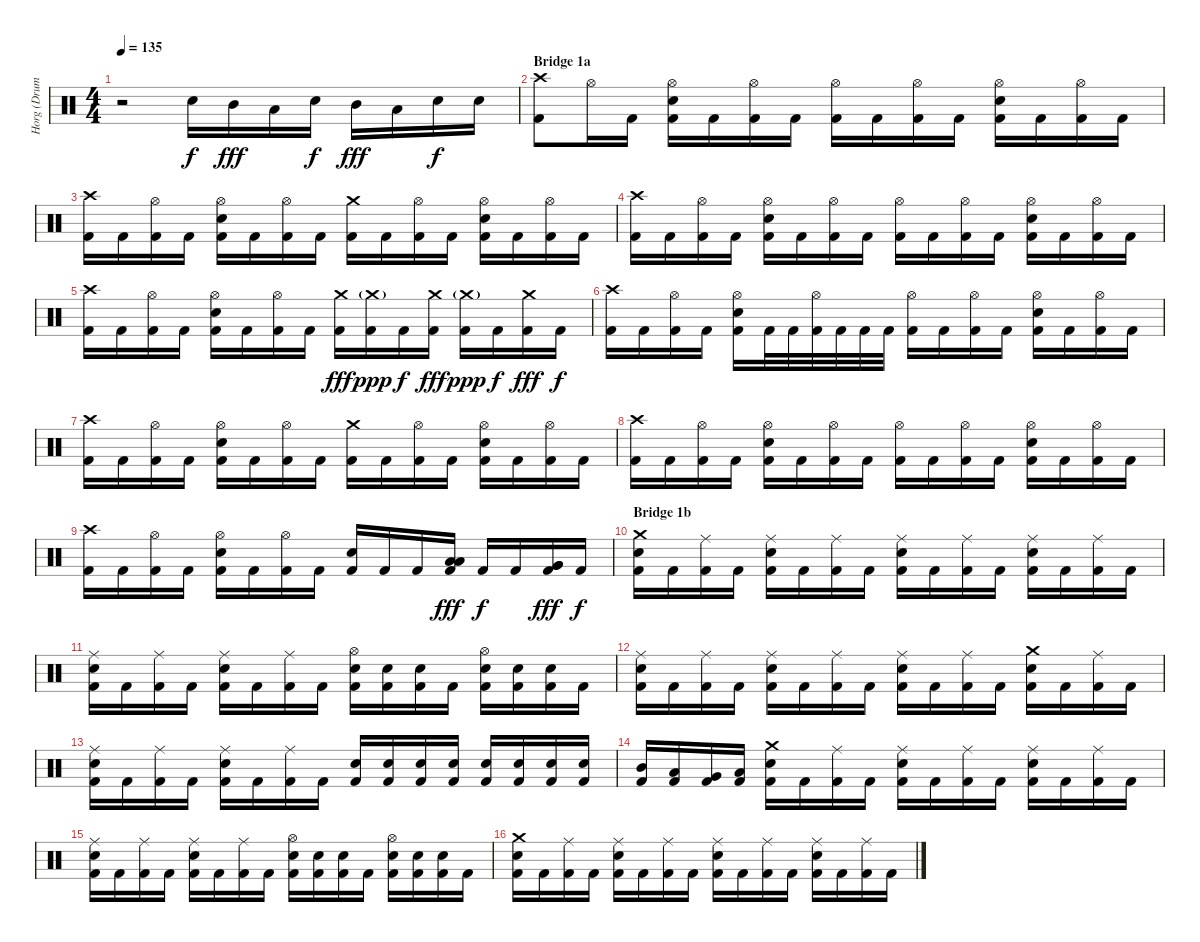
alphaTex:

\track ("Horg (Drums)" "Horg (Drum") {instrument percussion}
\staff {score}
\articulation defaults
\ts (4 4)
\tempo 135
\clef neutral
\ks c
r.2{dy f} "Electric Snare (hit)".16 "Mid Tom (hit)".16{dy fff} "Low Tom (hit)".16 "Electric Snare (hit)".16{dy f} "Mid Tom (hit)".16{dy fff} "Low Tom (hit)".16 "Electric Snare (hit)".16{dy f} "Electric Snare (hit)".16 |
\section ("" "Bridge 1a")
("Crash high (hit)" "Kick (hit) 2").8 "Hi-Hat (open)".16 "Kick (hit) 2".16 ("Hi-Hat (open)" "Electric Snare (hit)" "Kick (hit) 2").16 "Kick (hit) 2".16 ("Hi-Hat (open)" "Kick (hit) 2").16 "Kick (hit) 2".16 ("Hi-Hat (open)" "Kick (hit) 2").16 "Kick (hit) 2".16 ("Hi-Hat (open)" "Kick (hit) 2").16 "Kick (hit) 2".16 ("Hi-Hat (open)" "Electric Snare (hit)" "Kick (hit) 2").16 "Kick (hit) 2".16 ("Hi-Hat (open)" "Kick (hit) 2").16 "Kick (hit) 2".16 |
("Crash high (hit)" "Kick (hit) 2").16 "Kick (hit) 2".16 ("Hi-Hat (open)" "Kick (hit) 2").16 "Kick (hit) 2".16 ("Hi-Hat (open)" "Electric Snare (hit)" "Kick (hit) 2").16 "Kick (hit) 2".16 ("Hi-Hat (open)" "Kick (hit) 2").16 "Kick (hit) 2".16 ("Crash medium (hit)" "Kick (hit) 2").16 "Kick (hit) 2".16 ("Hi-Hat (open)" "Kick (hit) 2").16 "Kick (hit) 2".16 ("Hi-Hat (open)" "Electric Snare (hit)" "Kick (hit) 2").16 "Kick (hit) 2".16 ("Hi-Hat (open)" "Kick (hit) 2").16 "Kick (hit) 2".16 |
("Crash high (hit)" "Kick (hit) 2").16 "Kick (hit) 2".16 ("Hi-Hat (open)" "Kick (hit) 2").16 "Kick (hit) 2".16 ("Hi-Hat (open)" "Electric Snare (hit)" "Kick (hit) 2").16 "Kick (hit) 2".16 ("Hi-Hat (open)" "Kick (hit) 2").16 "Kick (hit) 2".16 ("Hi-Hat (open)" "Kick (hit) 2").16 "Kick (hit) 2".16 ("Hi-Hat (open)" "Kick (hit) 2").16 "Kick (hit) 2".16 ("Hi-Hat (open)" "Electric Snare (hit)" "Kick (hit) 2").16 "Kick (hit) 2".16 ("Hi-Hat (open)" "Kick (hit) 2").16 "Kick (hit) 2".16 |
("Crash high (hit)" "Kick (hit) 2").16 "Kick (hit) 2".16 ("Hi-Hat (open)" "Kick (hit) 2").16 "Kick (hit) 2".16 ("Hi-Hat (open)" "Electric Snare (hit)" "Kick (hit) 2").16 "Kick (hit) 2".16 ("Hi-Hat (open)" "Kick (hit) 2").16 "Kick (hit) 2".16 ("Crash medium (hit)" "Kick (hit) 2").16{dy fff} ("Crash medium (hit)"{g} "Kick (hit) 2").16{dy ppp} "Kick (hit) 2".16{dy f} ("Crash medium (hit)" "Kick (hit) 2").16{dy fff} ("Crash medium (hit)"{g} "Kick (hit) 2").16{dy ppp} "Kick (hit) 2".16{dy f} ("Crash medium (hit)" "Kick (hit) 2").16{dy fff} "Kick (hit) 2".16{dy f} |
("Crash high (hit)" "Kick (hit) 2").16 "Kick (hit) 2".16 ("Hi-Hat (open)" "Kick (hit) 2").16 "Kick (hit) 2".16 ("Hi-Hat (open)" "Electric Snare (hit)" "Kick (hit) 2").16 "Kick (hit) 2".32 "Kick (hit) 2".32 ("Hi-Hat (open)" "Kick (hit) 2").32 "Kick (hit) 2".32 "Kick (hit) 2".32 "Kick (hit) 2".32 ("Hi-Hat (open)" "Kick (hit) 2").16 "Kick (hit) 2".16 ("Hi-Hat (open)" "Kick (hit) 2").16 "Kick (hit) 2".16 ("Hi-Hat (open)" "Electric Snare (hit)" "Kick (hit) 2").16 "Kick (hit) 2".16 ("Hi-Hat (open)" "Kick (hit) 2").16 "Kick (hit) 2".16 |
("Crash high (hit)" "Kick (hit) 2").16 "Kick (hit) 2".16 ("Hi-Hat (open)" "Kick (hit) 2").16 "Kick (hit) 2".16 ("Hi-Hat (open)" "Electric Snare (hit)" "Kick (hit) 2").16 "Kick (hit) 2".16 ("Hi-Hat (open)" "Kick (hit) 2").16 "Kick (hit) 2".16 ("Crash medium (hit)" "Kick (hit) 2").16 "Kick (hit) 2".16 ("Hi-Hat (open)" "Kick (hit) 2").16 "Kick (hit) 2".16 ("Hi-Hat (open)" "Electric Snare (hit)" "Kick (hit) 2").16 "Kick (hit) 2".16 ("Hi-Hat (open)" "Kick (hit) 2").16 "Kick (hit) 2".16 |
("Crash high (hit)" "Kick (hit) 2").16 "Kick (hit) 2".16 ("Hi-Hat (open)" "Kick (hit) 2").16 "Kick (hit) 2".16 ("Hi-Hat (open)" "Electric Snare (hit)" "Kick (hit) 2").16 "Kick (hit) 2".16 ("Hi-Hat (open)" "Kick (hit) 2").16 "Kick (hit) 2".16 ("Hi-Hat (open)" "Kick (hit) 2").16 "Kick (hit) 2".16 ("Hi-Hat (open)" "Kick (hit) 2").16 "Kick (hit) 2".16 ("Hi-Hat (open)" "Electric Snare (hit)" "Kick (hit) 2").16 "Kick (hit) 2".16 ("Hi-Hat (open)" "Kick (hit) 2").16 "Kick (hit) 2".16 |
("Crash high (hit)" "Kick (hit) 2").16 "Kick (hit) 2".16 ("Hi-Hat (open)" "Kick (hit) 2").16 "Kick (hit) 2".16 ("Hi-Hat (open)" "Electric Snare (hit)" "Kick (hit) 2").16 "Kick (hit) 2".16 ("Hi-Hat (open)" "Kick (hit) 2").16 "Kick (hit) 2".16 ("Electric Snare (hit)" "Kick (hit) 2").16 "Kick (hit) 2".16 "Kick (hit) 2".16 ("Low Tom (hit)" "Low Tom (hit)" "Kick (hit) 2").16{dy fff} "Kick (hit) 2".16{dy f} "Kick (hit) 2".16 ("Very Low Tom (hit)" "Very Low Tom (hit)" "Kick (hit) 2").16{dy fff} "Kick (hit) 2".16{dy f} |
\section ("" "Bridge 1b")
("Crash medium (hit)" "Electric Snare (hit)" "Kick (hit) 2").16 "Kick (hit) 2".16 ("Ride (middle)" "Kick (hit) 2").16 "Kick (hit) 2".16 ("Ride (middle)" "Electric Snare (hit)" "Kick (hit) 2").16 "Kick (hit) 2".16 ("Ride (middle)" "Kick (hit) 2").16 "Kick (hit) 2".16 ("Ride (middle)" "Electric Snare (hit)" "Kick (hit) 2").16 "Kick (hit) 2".16 ("Ride (middle)" "Kick (hit) 2").16 "Kick (hit) 2".16 ("Ride (middle)" "Electric Snare (hit)" "Kick (hit) 2").16 "Kick (hit) 2".16 ("Ride (middle)" "Kick (hit) 2").16 "Kick (hit) 2".16 |
("Ride (middle)" "Electric Snare (hit)" "Kick (hit) 2").16 "Kick (hit) 2".16 ("Ride (middle)" "Kick (hit) 2").16 "Kick (hit) 2".16 ("Ride (middle)" "Electric Snare (hit)" "Kick (hit) 2").16 "Kick (hit) 2".16 ("Ride (middle)" "Kick (hit) 2").16 "Kick (hit) 2".16 ("Hi-Hat (open)" "Electric Snare (hit)" "Kick (hit) 2").16 ("Electric Snare (hit)" "Kick (hit) 2").16 ("Electric Snare (hit)" "Kick (hit) 2").16 "Kick (hit) 2".16 ("Hi-Hat (open)" "Electric Snare (hit)" "Kick (hit) 2").16 ("Electric Snare (hit)" "Kick (hit) 2").16 ("Electric Snare (hit)" "Kick (hit) 2").16 "Kick (hit) 2".16 |
("Ride (middle)" "Electric Snare (hit)" "Kick (hit) 2").16 "Kick (hit) 2".16 ("Ride (middle)" "Kick (hit) 2").16 "Kick (hit) 2".16 ("Ride (middle)" "Electric Snare (hit)" "Kick (hit) 2").16 "Kick (hit) 2".16 ("Ride (middle)" "Kick (hit) 2").16 "Kick (hit) 2".16 ("Ride (middle)" "Electric Snare (hit)" "Kick (hit) 2").16 "Kick (hit) 2".16 ("Ride (middle)" "Kick (hit) 2").16 "Kick (hit) 2".16 ("Crash medium (hit)" "Electric Snare (hit)" "Kick (hit) 2").16 "Kick (hit) 2".16 ("Ride (middle)" "Kick (hit) 2").16 "Kick (hit) 2".16 |
("Ride (middle)" "Electric Snare (hit)" "Kick (hit) 2").16 "Kick (hit) 2".16 ("Ride (middle)" "Kick (hit) 2").16 "Kick (hit) 2".16 ("Ride (middle)" "Electric Snare (hit)" "Kick (hit) 2").16 "Kick (hit) 2".16 ("Ride (middle)" "Kick (hit) 2").16 "Kick (hit) 2".16 ("Electric Snare (hit)" "Kick (hit) 2").16 ("Electric Snare (hit)" "Kick (hit) 2").16 ("Electric Snare (hit)" "Kick (hit) 2").16 ("Electric Snare (hit)" "Kick (hit) 2").16 ("Electric Snare (hit)" "Kick (hit) 2").16 ("Electric Snare (hit)" "Kick (hit) 2").16 ("Electric Snare (hit)" "Kick (hit) 2").16 ("Electric Snare (hit)" "Kick (hit) 2").16 |
("Mid Tom (hit)" "Kick (hit) 2").16 ("Low Tom (hit)" "Kick (hit) 2").16 ("Very Low Tom (hit)" "Kick (hit) 2").16 ("Low Floor Tom (hit)" "Kick (hit) 2").16 ("Crash medium (hit)" "Electric Snare (hit)" "Kick (hit) 2").16 "Kick (hit) 2".16 ("Ride (middle)" "Kick (hit) 2").16 "Kick (hit) 2".16 ("Ride (middle)" "Electric Snare (hit)" "Kick (hit) 2").16 "Kick (hit) 2".16 ("Ride (middle)" "Kick (hit) 2").16 "Kick (hit) 2".16 ("Ride (middle)" "Electric Snare (hit)" "Kick (hit) 2").16 "Kick (hit) 2".16 ("Ride (middle)" "Kick (hit) 2").16 "Kick (hit) 2".16 |
("Ride (middle)" "Electric Snare (hit)" "Kick (hit) 2").16 "Kick (hit) 2".16 ("Ride (middle)" "Kick (hit) 2").16 "Kick (hit) 2".16 ("Ride (middle)" "Electric Snare (hit)" "Kick (hit) 2").16 "Kick (hit) 2".16 ("Ride (middle)" "Kick (hit) 2").16 "Kick (hit) 2".16 ("Hi-Hat (open)" "Electric Snare (hit)" "Kick (hit) 2").16 ("Electric Snare (hit)" "Kick (hit) 2").16 ("Electric Snare (hit)" "Kick (hit) 2").16 "Kick (hit) 2".16 ("Hi-Hat (open)" "Electric Snare (hit)" "Kick (hit) 2").16 ("Electric Snare (hit)" "Kick (hit) 2").16 ("Electric Snare (hit)" "Kick (hit) 2").16 "Kick (hit) 2".16 |
("Crash medium (hit)" "Electric Snare (hit)" "Kick (hit) 2").16 "Kick (hit) 2".16 ("Ride (middle)" "Kick (hit) 2").16 "Kick (hit) 2".16 ("Ride (middle)" "Electric Snare (hit)" "Kick (hit) 2").16 "Kick (hit) 2".16 ("Ride (middle)" "Kick (hit) 2").16 "Kick (hit) 2".16 ("Ride (middle)" "Electric Snare (hit)" "Kick (hit) 2").16 "Kick (hit) 2".16 ("Ride (middle)" "Kick (hit) 2").16 "Kick (hit) 2".16 ("Ride (middle)" "Electric Snare (hit)" "Kick (hit) 2").16 "Kick (hit) 2".16 ("Ride (middle)" "Kick (hit) 2").16 "Kick (hit) 2".16
